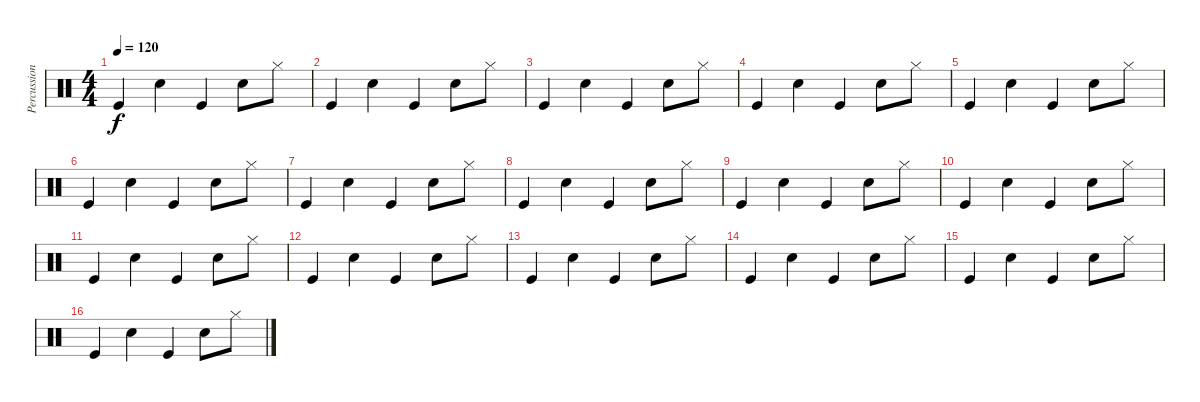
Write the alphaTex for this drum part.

\track ("Percussion" "Percussion") {instrument percussion}
\staff {score}
\articulation defaults
\ts (4 4)
\tempo 120
\clef neutral
\ks c "Kick (hit)".4{dy f} "Snare (hit) 2".4 "Kick (hit)".4 "Snare (hit) 2".8 "Hi-Hat (closed)".8
|
"Kick (hit)".4 "Snare (hit) 2".4 "Kick (hit)".4 "Snare (hit) 2".8 "Hi-Hat (closed)".8 |
"Kick (hit)".4 "Snare (hit) 2".4 "Kick (hit)".4 "Snare (hit) 2".8 "Hi-Hat (closed)".8 |
"Kick (hit)".4 "Snare (hit) 2".4 "Kick (hit)".4 "Snare (hit) 2".8 "Hi-Hat (closed)".8 |
"Kick (hit)".4 "Snare (hit) 2".4 "Kick (hit)".4 "Snare (hit) 2".8 "Hi-Hat (closed)".8 |
"Kick (hit)".4 "Snare (hit) 2".4 "Kick (hit)".4 "Snare (hit) 2".8 "Hi-Hat (closed)".8 |
"Kick (hit)".4 "Snare (hit) 2".4 "Kick (hit)".4 "Snare (hit) 2".8 "Hi-Hat (closed)".8 |
"Kick (hit)".4 "Snare (hit) 2".4 "Kick (hit)".4 "Snare (hit) 2".8 "Hi-Hat (closed)".8 |
"Kick (hit)".4 "Snare (hit) 2".4 "Kick (hit)".4 "Snare (hit) 2".8 "Hi-Hat (closed)".8 |
"Kick (hit)".4 "Snare (hit) 2".4 "Kick (hit)".4 "Snare (hit) 2".8 "Hi-Hat (closed)".8 |
"Kick (hit)".4 "Snare (hit) 2".4 "Kick (hit)".4 "Snare (hit) 2".8 "Hi-Hat (closed)".8 |
"Kick (hit)".4 "Snare (hit) 2".4 "Kick (hit)".4 "Snare (hit) 2".8 "Hi-Hat (closed)".8 |
"Kick (hit)".4 "Snare (hit) 2".4 "Kick (hit)".4 "Snare (hit) 2".8 "Hi-Hat (closed)".8 |
"Kick (hit)".4 "Snare (hit) 2".4 "Kick (hit)".4 "Snare (hit) 2".8 "Hi-Hat (closed)".8 |
"Kick (hit)".4 "Snare (hit) 2".4 "Kick (hit)".4 "Snare (hit) 2".8 "Hi-Hat (closed)".8 |
"Kick (hit)".4 "Snare (hit) 2".4 "Kick (hit)".4 "Snare (hit) 2".8 "Hi-Hat (closed)".8
